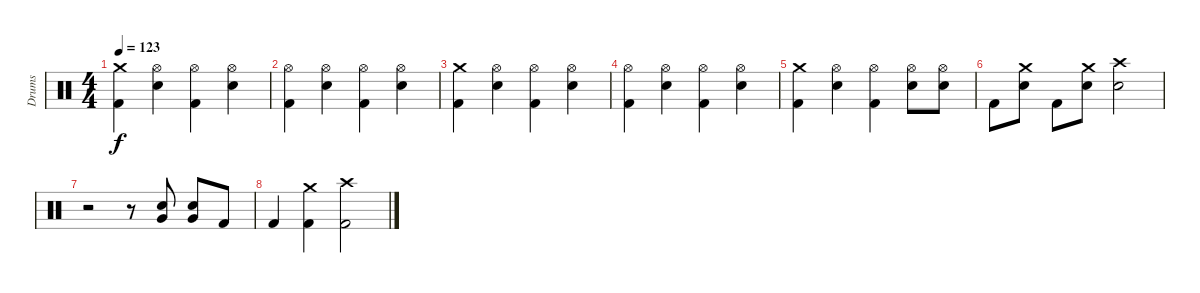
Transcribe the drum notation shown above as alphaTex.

\track ("Drums" "Drums") {instrument percussion}
\staff {score}
\articulation defaults
\ts (4 4)
\tempo 123
\clef neutral
\ks c
("Crash medium (hit)" "Kick (hit) 2").4{dy f} ("Hi-Hat (open)" "Electric Snare (hit)").4 ("Hi-Hat (open)" "Kick (hit) 2").4 ("Hi-Hat (open)" "Electric Snare (hit)").4 |
("Hi-Hat (open)" "Kick (hit) 2").4 ("Hi-Hat (open)" "Electric Snare (hit)").4 ("Hi-Hat (open)" "Kick (hit) 2").4 ("Hi-Hat (open)" "Electric Snare (hit)").4 |
("Crash medium (hit)" "Kick (hit) 2").4 ("Hi-Hat (open)" "Electric Snare (hit)").4 ("Hi-Hat (open)" "Kick (hit) 2").4 ("Hi-Hat (open)" "Electric Snare (hit)").4 |
("Hi-Hat (open)" "Kick (hit) 2").4 ("Hi-Hat (open)" "Electric Snare (hit)").4 ("Hi-Hat (open)" "Kick (hit) 2").4 ("Hi-Hat (open)" "Electric Snare (hit)").4 |
("Crash medium (hit)" "Kick (hit) 2").4 ("Hi-Hat (open)" "Electric Snare (hit)").4 ("Hi-Hat (open)" "Kick (hit) 2").4 ("Hi-Hat (open)" "Electric Snare (hit)").8 ("Hi-Hat (open)" "Electric Snare (hit)").8 |
"Kick (hit) 2".8 ("Crash medium (hit)" "Electric Snare (hit)").8 "Kick (hit) 2".8 ("Crash medium (hit)" "Electric Snare (hit)").8 ("Crash high (hit)" "Electric Snare (hit)").2 |
r.2 r.8 ("Very Low Tom (hit)" "Electric Snare (hit)").8 ("Very Low Tom (hit)" "Electric Snare (hit)").8 "Kick (hit) 2".8 |
"Kick (hit) 2".4 ("Crash medium (hit)" "Kick (hit) 2").4 ("Crash high (hit)" "Kick (hit) 2").2
